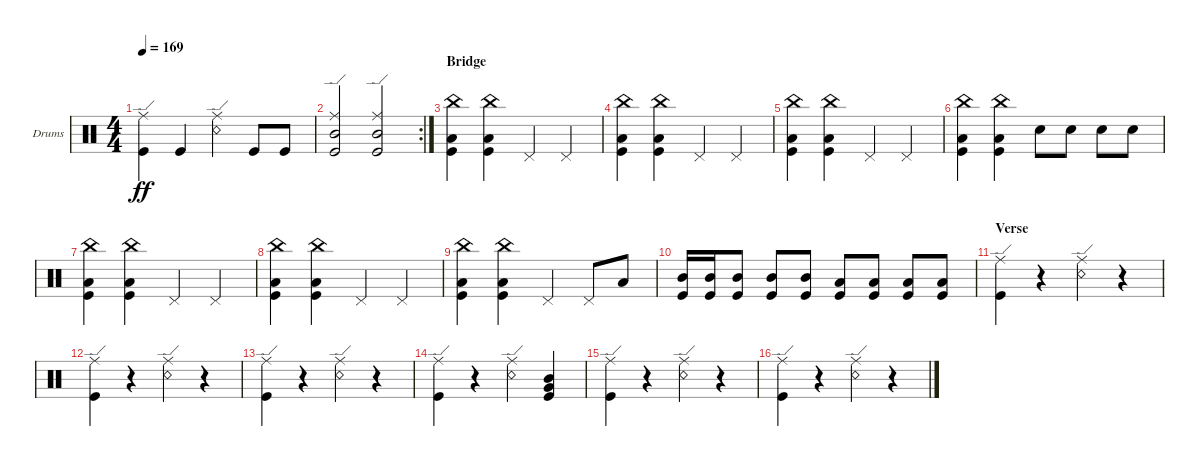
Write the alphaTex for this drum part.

\bracketExtendMode groupsimilarinstruments
\firstSystemTrackNameOrientation horizontal
\otherSystemsTrackNameOrientation horizontal
\track ("Drumkit" "Drums") {instrument percussion}
\staff {score}
\articulation defaults
\ts (4 4)
\tempo 169
\clef neutral
\ks c
("Kick (hit)" "Ride (edge)").4{dy ff} "Kick (hit)".4 ("Snare (rim shot)" "Ride (edge)").4 "Kick (hit)".8 "Kick (hit)".8 |
\rc 2
("Kick (hit)" "Mid Tom (hit)" "Ride (edge)").2 ("Kick (hit)" "Mid Tom (hit)" "Ride (edge)").2 |
\section ("" "Bridge")
("Kick (hit)" "Low Tom (hit)" "China (hit)").4 ("Kick (hit)" "Low Tom (hit)" "China (hit)").4 "Pedal Hi-Hat (hit)".4 "Pedal Hi-Hat (hit)".4 |
("Kick (hit)" "Low Tom (hit)" "China (hit)").4 ("Kick (hit)" "Low Tom (hit)" "China (hit)").4 "Pedal Hi-Hat (hit)".4 "Pedal Hi-Hat (hit)".4 |
("Kick (hit)" "China (hit)" "Low Tom (hit)").4 ("Kick (hit)" "Low Tom (hit)" "China (hit)").4 "Pedal Hi-Hat (hit)".4 "Pedal Hi-Hat (hit)".4 |
("Kick (hit)" "China (hit)" "Low Tom (hit)").4 ("Kick (hit)" "Low Tom (hit)" "China (hit)").4 "Snare (hit) 2".8 "Snare (hit) 2".8 "Snare (hit) 2".8 "Snare (hit) 2".8 |
("Kick (hit)" "Low Tom (hit)" "China (hit)").4 ("Kick (hit)" "Low Tom (hit)" "China (hit)").4 "Pedal Hi-Hat (hit)".4 "Pedal Hi-Hat (hit)".4 |
("Kick (hit)" "Low Tom (hit)" "China (hit)").4 ("Kick (hit)" "Low Tom (hit)" "China (hit)").4 "Pedal Hi-Hat (hit)".4 "Pedal Hi-Hat (hit)".4 |
("Kick (hit)" "China (hit)" "Low Tom (hit)").4 ("Kick (hit)" "Low Tom (hit)" "China (hit)").4 "Pedal Hi-Hat (hit)".4 "Pedal Hi-Hat (hit)".8 "Low Tom (hit)".8 |
("Kick (hit)" "Mid Tom (hit)").16 ("Kick (hit)" "Mid Tom (hit)").16 ("Kick (hit)" "Mid Tom (hit)").8 ("Kick (hit)" "Mid Tom (hit)").8 ("Kick (hit)" "Mid Tom (hit)").8 ("Low Tom (hit)" "Kick (hit)").8 ("Low Tom (hit)" "Kick (hit)").8 ("Low Tom (hit)" "Kick (hit)").8 ("Low Tom (hit)" "Kick (hit)").8 |
\section ("" "Verse")
("Kick (hit)" "Ride (edge)").4 r.4 ("Snare (rim shot)" "Ride (edge)").4 r.4 |
("Kick (hit)" "Ride (edge)").4 r.4 ("Snare (rim shot)" "Ride (edge)").4 r.4 |
("Kick (hit)" "Ride (edge)").4 r.4 ("Snare (rim shot)" "Ride (edge)").4 r.4 |
("Kick (hit)" "Ride (edge)").4 r.4 ("Snare (rim shot)" "Ride (edge)").4 ("Mid Tom (hit)" "Very Low Tom (hit)" "Kick (hit)").4 |
("Kick (hit)" "Ride (edge)").4 r.4 ("Snare (rim shot)" "Ride (edge)").4 r.4 |
("Kick (hit)" "Ride (edge)").4 r.4 ("Snare (rim shot)" "Ride (edge)").4 r.4
